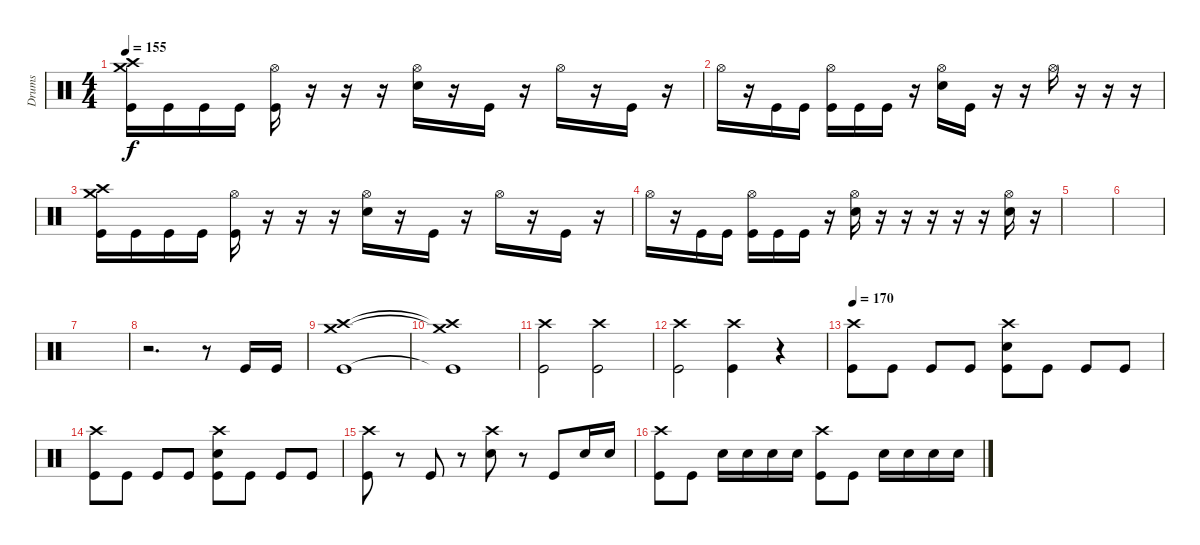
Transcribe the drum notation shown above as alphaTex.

\track ("Drums" "Drums") {instrument percussion}
\staff {score}
\articulation defaults
\ts (4 4)
\tempo 155
\clef neutral
\ks c
("Crash high (hit)" "Crash medium (hit)" "Kick (hit)").16{dy f} "Kick (hit)".16 "Kick (hit)".16 "Kick (hit)".16 ("Hi-Hat (open)" "Kick (hit)").16 r.16 r.16 r.16 ("Hi-Hat (open)" "Electric Snare (hit)").16 r.16 "Kick (hit)".16 r.16 "Hi-Hat (open)".16 r.16 "Kick (hit)".16 r.16 |
"Hi-Hat (open)".16 r.16 "Kick (hit)".16 "Kick (hit)".16 ("Hi-Hat (open)" "Kick (hit)").16 "Kick (hit)".16 "Kick (hit)".16 r.16 ("Hi-Hat (open)" "Electric Snare (hit)").16 "Kick (hit)".16 r.16 r.16 "Hi-Hat (open)".16 r.16 r.16 r.16 |
("Crash high (hit)" "Crash medium (hit)" "Kick (hit)").16 "Kick (hit)".16 "Kick (hit)".16 "Kick (hit)".16 ("Hi-Hat (open)" "Kick (hit)").16 r.16 r.16 r.16 ("Hi-Hat (open)" "Electric Snare (hit)").16 r.16 "Kick (hit)".16 r.16 "Hi-Hat (open)".16 r.16 "Kick (hit)".16 r.16 |
"Hi-Hat (open)".16 r.16 "Kick (hit)".16 "Kick (hit)".16 ("Hi-Hat (open)" "Kick (hit)").16 "Kick (hit)".16 "Kick (hit)".16 r.16 ("Hi-Hat (open)" "Electric Snare (hit)").16 r.16 r.16 r.16 r.16 r.16 ("Hi-Hat (open)" "Electric Snare (hit)").16 r.16{volume 0} |
|
|
|
r.2{d volume 13} r.8 "Kick (hit)".16 "Kick (hit)".16 |
("Crash medium (hit)" "Crash high (hit)" "Kick (hit)").1 |
("Crash medium (hit)"{t} "Crash high (hit)"{t} "Kick (hit)"{t}).1 |
("Crash high (hit)" "Kick (hit)").2 ("Crash high (hit)" "Kick (hit)").2 |
("Crash high (hit)" "Kick (hit)").2 ("Crash high (hit)" "Kick (hit)").4 r.4{volume 0} |
\tempo 170
("Crash high (hit)" "Kick (hit)").8{volume 13} "Kick (hit)".8 "Kick (hit)".8 "Kick (hit)".8 ("Crash high (hit)" "Kick (hit)" "Electric Snare (hit)").8 "Kick (hit)".8 "Kick (hit)".8 "Kick (hit)".8 |
("Crash high (hit)" "Kick (hit)").8{volume 13} "Kick (hit)".8 "Kick (hit)".8 "Kick (hit)".8 ("Crash high (hit)" "Kick (hit)" "Electric Snare (hit)").8 "Kick (hit)".8 "Kick (hit)".8 "Kick (hit)".8 |
("Crash high (hit)" "Kick (hit)").8 r.8 "Kick (hit)".8 r.8 ("Crash high (hit)" "Electric Snare (hit)").8 r.8 "Kick (hit)".8 "Electric Snare (hit)".16 "Electric Snare (hit)".16 |
("Crash high (hit)" "Kick (hit)").8 "Kick (hit)".8 "Electric Snare (hit)".16 "Electric Snare (hit)".16 "Electric Snare (hit)".16 "Electric Snare (hit)".16 ("Crash high (hit)" "Kick (hit)").8 "Kick (hit)".8 "Electric Snare (hit)".16 "Electric Snare (hit)".16 "Electric Snare (hit)".16 "Electric Snare (hit)".16
